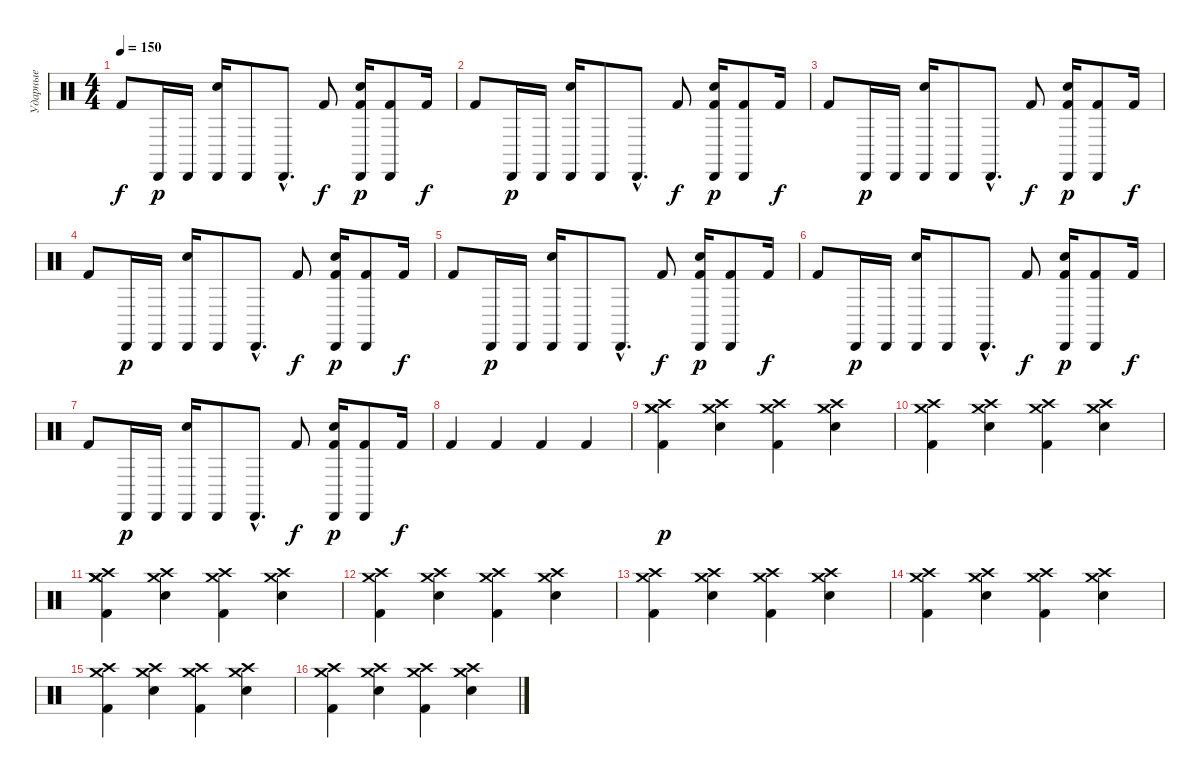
\track ("Ударные" "Ударные") {instrument percussion}
\staff {score}
\articulation defaults
\ts (4 4)
\tempo 150
\clef neutral
\ks c "Kick (hit) 2".8{dy f} "Cabasa (hit)".16{dy p} "Cabasa (hit)".16
("Cabasa (hit)" "Electric Snare (hit)").16 "Cabasa (hit)".8 "Cabasa (hit)"{hac}.8{d} "Kick (hit) 2".8{dy f} ("Cabasa (hit)" "Electric Snare (hit)" "Kick (hit) 2").16{dy p} ("Cabasa (hit)" "Kick (hit) 2").8 "Kick (hit) 2".16{dy f} |
"Kick (hit) 2".8 "Cabasa (hit)".16{dy p} "Cabasa (hit)".16 ("Cabasa (hit)" "Electric Snare (hit)").16 "Cabasa (hit)".8 "Cabasa (hit)"{hac}.8{d} "Kick (hit) 2".8{dy f} ("Cabasa (hit)" "Electric Snare (hit)" "Kick (hit) 2").16{dy p} ("Cabasa (hit)" "Kick (hit) 2").8 "Kick (hit) 2".16{dy f} |
"Kick (hit) 2".8 "Cabasa (hit)".16{dy p} "Cabasa (hit)".16 ("Cabasa (hit)" "Electric Snare (hit)").16 "Cabasa (hit)".8 "Cabasa (hit)"{hac}.8{d} "Kick (hit) 2".8{dy f} ("Cabasa (hit)" "Electric Snare (hit)" "Kick (hit) 2").16{dy p} ("Cabasa (hit)" "Kick (hit) 2").8 "Kick (hit) 2".16{dy f} |
"Kick (hit) 2".8 "Cabasa (hit)".16{dy p} "Cabasa (hit)".16 ("Cabasa (hit)" "Electric Snare (hit)").16 "Cabasa (hit)".8 "Cabasa (hit)"{hac}.8{d} "Kick (hit) 2".8{dy f} ("Cabasa (hit)" "Electric Snare (hit)" "Kick (hit) 2").16{dy p} ("Cabasa (hit)" "Kick (hit) 2").8 "Kick (hit) 2".16{dy f} |
"Kick (hit) 2".8 "Cabasa (hit)".16{dy p} "Cabasa (hit)".16 ("Cabasa (hit)" "Electric Snare (hit)").16 "Cabasa (hit)".8 "Cabasa (hit)"{hac}.8{d} "Kick (hit) 2".8{dy f} ("Cabasa (hit)" "Electric Snare (hit)" "Kick (hit) 2").16{dy p} ("Cabasa (hit)" "Kick (hit) 2").8 "Kick (hit) 2".16{dy f} |
"Kick (hit) 2".8 "Cabasa (hit)".16{dy p} "Cabasa (hit)".16 ("Cabasa (hit)" "Electric Snare (hit)").16 "Cabasa (hit)".8 "Cabasa (hit)"{hac}.8{d} "Kick (hit) 2".8{dy f} ("Cabasa (hit)" "Electric Snare (hit)" "Kick (hit) 2").16{dy p} ("Cabasa (hit)" "Kick (hit) 2").8 "Kick (hit) 2".16{dy f} |
"Kick (hit) 2".8 "Cabasa (hit)".16{dy p} "Cabasa (hit)".16 ("Cabasa (hit)" "Electric Snare (hit)").16 "Cabasa (hit)".8 "Cabasa (hit)"{hac}.8{d} "Kick (hit) 2".8{dy f} ("Cabasa (hit)" "Electric Snare (hit)" "Kick (hit) 2").16{dy p} ("Cabasa (hit)" "Kick (hit) 2").8 "Kick (hit) 2".16{dy f} |
"Kick (hit) 2".4 "Kick (hit) 2".4 "Kick (hit) 2".4 "Kick (hit) 2".4 |
("Crash medium (hit)" "Crash medium (hit)" "Crash high (hit)" "Kick (hit) 2").4{dy p} ("Electric Snare (hit)" "Crash medium (hit)" "Crash high (hit)").4 ("Kick (hit) 2" "Crash medium (hit)" "Crash high (hit)").4 ("Electric Snare (hit)" "Crash medium (hit)" "Crash high (hit)").4 |
("Crash medium (hit)" "Crash high (hit)" "Kick (hit) 2").4 ("Electric Snare (hit)" "Crash medium (hit)" "Crash high (hit)").4 ("Kick (hit) 2" "Crash medium (hit)" "Crash high (hit)").4 ("Electric Snare (hit)" "Crash medium (hit)" "Crash high (hit)").4 |
("Crash medium (hit)" "Crash medium (hit)" "Crash high (hit)" "Kick (hit) 2").4 ("Electric Snare (hit)" "Crash medium (hit)" "Crash high (hit)").4 ("Kick (hit) 2" "Crash medium (hit)" "Crash high (hit)").4 ("Electric Snare (hit)" "Crash medium (hit)" "Crash high (hit)").4 |
("Crash medium (hit)" "Crash high (hit)" "Kick (hit) 2").4 ("Electric Snare (hit)" "Crash medium (hit)" "Crash high (hit)").4 ("Kick (hit) 2" "Crash medium (hit)" "Crash high (hit)").4 ("Electric Snare (hit)" "Crash medium (hit)" "Crash high (hit)").4 |
("Crash medium (hit)" "Crash high (hit)" "Kick (hit) 2").4 ("Electric Snare (hit)" "Crash medium (hit)" "Crash high (hit)").4 ("Kick (hit) 2" "Crash medium (hit)" "Crash high (hit)").4 ("Electric Snare (hit)" "Crash medium (hit)" "Crash high (hit)").4 |
("Crash medium (hit)" "Crash high (hit)" "Kick (hit) 2").4 ("Electric Snare (hit)" "Crash medium (hit)" "Crash high (hit)").4 ("Kick (hit) 2" "Crash medium (hit)" "Crash high (hit)").4 ("Electric Snare (hit)" "Crash medium (hit)" "Crash high (hit)").4 |
("Crash medium (hit)" "Crash high (hit)" "Kick (hit) 2").4 ("Electric Snare (hit)" "Crash medium (hit)" "Crash high (hit)").4 ("Kick (hit) 2" "Crash medium (hit)" "Crash high (hit)").4 ("Electric Snare (hit)" "Crash medium (hit)" "Crash high (hit)").4 |
("Crash medium (hit)" "Crash high (hit)" "Kick (hit) 2").4 ("Electric Snare (hit)" "Crash medium (hit)" "Crash high (hit)").4 ("Kick (hit) 2" "Crash medium (hit)" "Crash high (hit)").4 ("Electric Snare (hit)" "Crash medium (hit)" "Crash high (hit)").4
